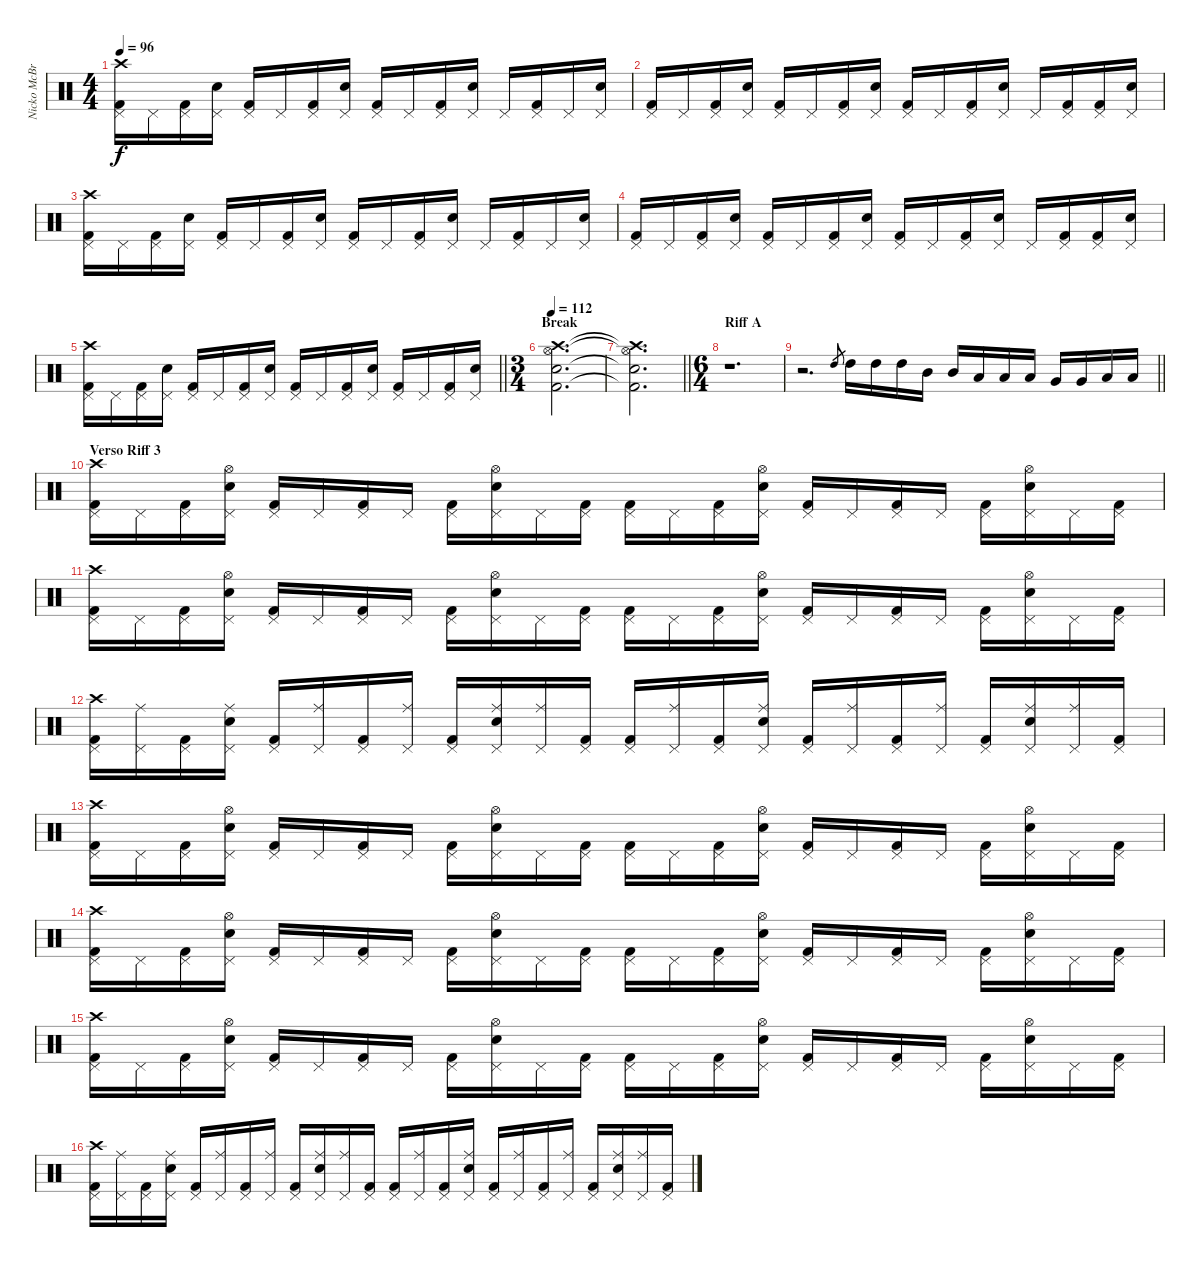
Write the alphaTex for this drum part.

\track ("Nicko McBrain" "Nicko McBr") {instrument percussion}
\staff {score}
\articulation defaults
\ts (4 4)
\tempo 96
\clef neutral
\ks c
("Kick (hit) 2" "Pedal Hi-Hat (hit)" "Crash high (hit)").16{dy f} "Pedal Hi-Hat (hit)".16 ("Kick (hit) 2" "Pedal Hi-Hat (hit)").16 ("Snare (hit) 2" "Pedal Hi-Hat (hit)").16 ("Kick (hit) 2" "Pedal Hi-Hat (hit)").16 "Pedal Hi-Hat (hit)".16 ("Kick (hit) 2" "Pedal Hi-Hat (hit)").16 ("Snare (hit) 2" "Pedal Hi-Hat (hit)").16 ("Kick (hit) 2" "Pedal Hi-Hat (hit)").16 "Pedal Hi-Hat (hit)".16 ("Kick (hit) 2" "Pedal Hi-Hat (hit)").16 ("Snare (hit) 2" "Pedal Hi-Hat (hit)").16 "Pedal Hi-Hat (hit)".16 ("Kick (hit) 2" "Pedal Hi-Hat (hit)").16 "Pedal Hi-Hat (hit)".16 ("Snare (hit) 2" "Pedal Hi-Hat (hit)").16 |
("Kick (hit) 2" "Pedal Hi-Hat (hit)").16 "Pedal Hi-Hat (hit)".16 ("Kick (hit) 2" "Pedal Hi-Hat (hit)").16 ("Snare (hit) 2" "Pedal Hi-Hat (hit)").16 ("Kick (hit) 2" "Pedal Hi-Hat (hit)").16 "Pedal Hi-Hat (hit)".16 ("Kick (hit) 2" "Pedal Hi-Hat (hit)").16 ("Snare (hit) 2" "Pedal Hi-Hat (hit)").16 ("Kick (hit) 2" "Pedal Hi-Hat (hit)").16 "Pedal Hi-Hat (hit)".16 ("Kick (hit) 2" "Pedal Hi-Hat (hit)").16 ("Snare (hit) 2" "Pedal Hi-Hat (hit)").16 "Pedal Hi-Hat (hit)".16 ("Kick (hit) 2" "Pedal Hi-Hat (hit)").16 ("Kick (hit) 2" "Pedal Hi-Hat (hit)").16 ("Snare (hit) 2" "Pedal Hi-Hat (hit)").16 |
("Kick (hit) 2" "Pedal Hi-Hat (hit)" "Crash high (hit)").16 "Pedal Hi-Hat (hit)".16 ("Kick (hit) 2" "Pedal Hi-Hat (hit)").16 ("Snare (hit) 2" "Pedal Hi-Hat (hit)").16 ("Kick (hit) 2" "Pedal Hi-Hat (hit)").16 "Pedal Hi-Hat (hit)".16 ("Kick (hit) 2" "Pedal Hi-Hat (hit)").16 ("Snare (hit) 2" "Pedal Hi-Hat (hit)").16 ("Kick (hit) 2" "Pedal Hi-Hat (hit)").16 "Pedal Hi-Hat (hit)".16 ("Kick (hit) 2" "Pedal Hi-Hat (hit)").16 ("Snare (hit) 2" "Pedal Hi-Hat (hit)").16 "Pedal Hi-Hat (hit)".16 ("Kick (hit) 2" "Pedal Hi-Hat (hit)").16 "Pedal Hi-Hat (hit)".16 ("Snare (hit) 2" "Pedal Hi-Hat (hit)").16 |
("Kick (hit) 2" "Pedal Hi-Hat (hit)").16 "Pedal Hi-Hat (hit)".16 ("Kick (hit) 2" "Pedal Hi-Hat (hit)").16 ("Snare (hit) 2" "Pedal Hi-Hat (hit)").16 ("Kick (hit) 2" "Pedal Hi-Hat (hit)").16 "Pedal Hi-Hat (hit)".16 ("Kick (hit) 2" "Pedal Hi-Hat (hit)").16 ("Snare (hit) 2" "Pedal Hi-Hat (hit)").16 ("Kick (hit) 2" "Pedal Hi-Hat (hit)").16 "Pedal Hi-Hat (hit)".16 ("Kick (hit) 2" "Pedal Hi-Hat (hit)").16 ("Snare (hit) 2" "Pedal Hi-Hat (hit)").16 "Pedal Hi-Hat (hit)".16 ("Kick (hit) 2" "Pedal Hi-Hat (hit)").16 ("Kick (hit) 2" "Pedal Hi-Hat (hit)").16 ("Snare (hit) 2" "Pedal Hi-Hat (hit)").16 |
\barLineRight lightlight
("Kick (hit) 2" "Pedal Hi-Hat (hit)" "Crash high (hit)").16 "Pedal Hi-Hat (hit)".16 ("Kick (hit) 2" "Pedal Hi-Hat (hit)").16 ("Snare (hit) 2" "Pedal Hi-Hat (hit)").16 ("Kick (hit) 2" "Pedal Hi-Hat (hit)").16 "Pedal Hi-Hat (hit)".16 ("Kick (hit) 2" "Pedal Hi-Hat (hit)").16 ("Snare (hit) 2" "Pedal Hi-Hat (hit)").16 ("Kick (hit) 2" "Pedal Hi-Hat (hit)").16 "Pedal Hi-Hat (hit)".16 ("Kick (hit) 2" "Pedal Hi-Hat (hit)").16 ("Snare (hit) 2" "Pedal Hi-Hat (hit)").16 ("Kick (hit) 2" "Pedal Hi-Hat (hit)").16 "Pedal Hi-Hat (hit)".16 ("Kick (hit) 2" "Pedal Hi-Hat (hit)").16 ("Snare (hit) 2" "Pedal Hi-Hat (hit)").16 |
\ts (3 4)
\section ("" "Break")
\tempo 112
("Snare (hit) 2" "Kick (hit) 2" "Hi-Hat (open)" "Crash high (hit)").2{d} |
\barLineRight lightlight
("Snare (hit) 2"{t} "Kick (hit) 2"{t} "Hi-Hat (open)"{t} "Crash high (hit)"{t}).2{d} |
\ts (6 4)
\section ("" "Riff A")
r.1{d} |
\barLineRight lightlight
r.2{d} "High Tom (hit)".8{gr} "High Tom (hit)".16 "High Tom (hit)".16 "High Tom (hit)".16 "Mid Tom (hit)".16 "Mid Tom (hit)".16 "Low Tom (hit)".16 "Low Tom (hit)".16 "Low Tom (hit)".16 "Very Low Tom (hit)".16 "Very Low Tom (hit)".16 "Low Floor Tom (hit)".16 "Low Floor Tom (hit)".16 |
\section ("" "Verso Riff 3")
("Kick (hit) 2" "Pedal Hi-Hat (hit)" "Crash high (hit)").16 "Pedal Hi-Hat (hit)".16 ("Kick (hit) 2" "Pedal Hi-Hat (hit)").16 ("Snare (hit) 2" "Pedal Hi-Hat (hit)" "Hi-Hat (open)").16 ("Kick (hit) 2" "Pedal Hi-Hat (hit)").16 "Pedal Hi-Hat (hit)".16 ("Kick (hit) 2" "Pedal Hi-Hat (hit)").16 "Pedal Hi-Hat (hit)".16 ("Kick (hit) 2" "Pedal Hi-Hat (hit)").16 ("Snare (hit) 2" "Pedal Hi-Hat (hit)" "Hi-Hat (open)").16 "Pedal Hi-Hat (hit)".16 ("Kick (hit) 2" "Pedal Hi-Hat (hit)").16 ("Kick (hit) 2" "Pedal Hi-Hat (hit)").16 "Pedal Hi-Hat (hit)".16 ("Kick (hit) 2" "Pedal Hi-Hat (hit)").16 ("Snare (hit) 2" "Pedal Hi-Hat (hit)" "Hi-Hat (open)").16 ("Kick (hit) 2" "Pedal Hi-Hat (hit)").16 "Pedal Hi-Hat (hit)".16 ("Kick (hit) 2" "Pedal Hi-Hat (hit)").16 "Pedal Hi-Hat (hit)".16 ("Kick (hit) 2" "Pedal Hi-Hat (hit)").16 ("Snare (hit) 2" "Pedal Hi-Hat (hit)" "Hi-Hat (open)").16 "Pedal Hi-Hat (hit)".16 ("Kick (hit) 2" "Pedal Hi-Hat (hit)").16 |
("Kick (hit) 2" "Pedal Hi-Hat (hit)" "Crash high (hit)").16 "Pedal Hi-Hat (hit)".16 ("Kick (hit) 2" "Pedal Hi-Hat (hit)").16 ("Snare (hit) 2" "Pedal Hi-Hat (hit)" "Hi-Hat (open)").16 ("Kick (hit) 2" "Pedal Hi-Hat (hit)").16 "Pedal Hi-Hat (hit)".16 ("Kick (hit) 2" "Pedal Hi-Hat (hit)").16 "Pedal Hi-Hat (hit)".16 ("Kick (hit) 2" "Pedal Hi-Hat (hit)").16 ("Snare (hit) 2" "Pedal Hi-Hat (hit)" "Hi-Hat (open)").16 "Pedal Hi-Hat (hit)".16 ("Kick (hit) 2" "Pedal Hi-Hat (hit)").16 ("Kick (hit) 2" "Pedal Hi-Hat (hit)").16 "Pedal Hi-Hat (hit)".16 ("Kick (hit) 2" "Pedal Hi-Hat (hit)").16 ("Snare (hit) 2" "Pedal Hi-Hat (hit)" "Hi-Hat (open)").16 ("Kick (hit) 2" "Pedal Hi-Hat (hit)").16 "Pedal Hi-Hat (hit)".16 ("Kick (hit) 2" "Pedal Hi-Hat (hit)").16 "Pedal Hi-Hat (hit)".16 ("Kick (hit) 2" "Pedal Hi-Hat (hit)").16 ("Snare (hit) 2" "Pedal Hi-Hat (hit)" "Hi-Hat (open)").16 "Pedal Hi-Hat (hit)".16 ("Kick (hit) 2" "Pedal Hi-Hat (hit)").16 |
("Kick (hit) 2" "Pedal Hi-Hat (hit)" "Crash high (hit)").16 ("Pedal Hi-Hat (hit)" "Ride (middle)").16 ("Kick (hit) 2" "Pedal Hi-Hat (hit)").16 ("Snare (hit) 2" "Pedal Hi-Hat (hit)" "Ride (middle)").16 ("Kick (hit) 2" "Pedal Hi-Hat (hit)").16 ("Pedal Hi-Hat (hit)" "Ride (middle)").16 ("Kick (hit) 2" "Pedal Hi-Hat (hit)").16 ("Pedal Hi-Hat (hit)" "Ride (middle)").16 ("Kick (hit) 2" "Pedal Hi-Hat (hit)").16 ("Snare (hit) 2" "Pedal Hi-Hat (hit)" "Ride (middle)").16 ("Pedal Hi-Hat (hit)" "Ride (middle)").16 ("Kick (hit) 2" "Pedal Hi-Hat (hit)").16 ("Kick (hit) 2" "Pedal Hi-Hat (hit)").16 ("Pedal Hi-Hat (hit)" "Ride (middle)").16 ("Kick (hit) 2" "Pedal Hi-Hat (hit)").16 ("Snare (hit) 2" "Pedal Hi-Hat (hit)" "Ride (middle)").16 ("Kick (hit) 2" "Pedal Hi-Hat (hit)").16 ("Pedal Hi-Hat (hit)" "Ride (middle)").16 ("Kick (hit) 2" "Pedal Hi-Hat (hit)").16 ("Pedal Hi-Hat (hit)" "Ride (middle)").16 ("Kick (hit) 2" "Pedal Hi-Hat (hit)").16 ("Snare (hit) 2" "Pedal Hi-Hat (hit)" "Ride (middle)").16 ("Pedal Hi-Hat (hit)" "Ride (middle)").16 ("Kick (hit) 2" "Pedal Hi-Hat (hit)").16 |
("Kick (hit) 2" "Pedal Hi-Hat (hit)" "Crash high (hit)").16 "Pedal Hi-Hat (hit)".16 ("Kick (hit) 2" "Pedal Hi-Hat (hit)").16 ("Snare (hit) 2" "Pedal Hi-Hat (hit)" "Hi-Hat (open)").16 ("Kick (hit) 2" "Pedal Hi-Hat (hit)").16 "Pedal Hi-Hat (hit)".16 ("Kick (hit) 2" "Pedal Hi-Hat (hit)").16 "Pedal Hi-Hat (hit)".16 ("Kick (hit) 2" "Pedal Hi-Hat (hit)").16 ("Snare (hit) 2" "Pedal Hi-Hat (hit)" "Hi-Hat (open)").16 "Pedal Hi-Hat (hit)".16 ("Kick (hit) 2" "Pedal Hi-Hat (hit)").16 ("Kick (hit) 2" "Pedal Hi-Hat (hit)").16 "Pedal Hi-Hat (hit)".16 ("Kick (hit) 2" "Pedal Hi-Hat (hit)").16 ("Snare (hit) 2" "Pedal Hi-Hat (hit)" "Hi-Hat (open)").16 ("Kick (hit) 2" "Pedal Hi-Hat (hit)").16 "Pedal Hi-Hat (hit)".16 ("Kick (hit) 2" "Pedal Hi-Hat (hit)").16 "Pedal Hi-Hat (hit)".16 ("Kick (hit) 2" "Pedal Hi-Hat (hit)").16 ("Snare (hit) 2" "Pedal Hi-Hat (hit)" "Hi-Hat (open)").16 "Pedal Hi-Hat (hit)".16 ("Kick (hit) 2" "Pedal Hi-Hat (hit)").16 |
("Kick (hit) 2" "Pedal Hi-Hat (hit)" "Crash high (hit)").16 "Pedal Hi-Hat (hit)".16 ("Kick (hit) 2" "Pedal Hi-Hat (hit)").16 ("Snare (hit) 2" "Pedal Hi-Hat (hit)" "Hi-Hat (open)").16 ("Kick (hit) 2" "Pedal Hi-Hat (hit)").16 "Pedal Hi-Hat (hit)".16 ("Kick (hit) 2" "Pedal Hi-Hat (hit)").16 "Pedal Hi-Hat (hit)".16 ("Kick (hit) 2" "Pedal Hi-Hat (hit)").16 ("Snare (hit) 2" "Pedal Hi-Hat (hit)" "Hi-Hat (open)").16 "Pedal Hi-Hat (hit)".16 ("Kick (hit) 2" "Pedal Hi-Hat (hit)").16 ("Kick (hit) 2" "Pedal Hi-Hat (hit)").16 "Pedal Hi-Hat (hit)".16 ("Kick (hit) 2" "Pedal Hi-Hat (hit)").16 ("Snare (hit) 2" "Pedal Hi-Hat (hit)" "Hi-Hat (open)").16 ("Kick (hit) 2" "Pedal Hi-Hat (hit)").16 "Pedal Hi-Hat (hit)".16 ("Kick (hit) 2" "Pedal Hi-Hat (hit)").16 "Pedal Hi-Hat (hit)".16 ("Kick (hit) 2" "Pedal Hi-Hat (hit)").16 ("Snare (hit) 2" "Pedal Hi-Hat (hit)" "Hi-Hat (open)").16 "Pedal Hi-Hat (hit)".16 ("Kick (hit) 2" "Pedal Hi-Hat (hit)").16 |
("Kick (hit) 2" "Pedal Hi-Hat (hit)" "Crash high (hit)").16 "Pedal Hi-Hat (hit)".16 ("Kick (hit) 2" "Pedal Hi-Hat (hit)").16 ("Snare (hit) 2" "Pedal Hi-Hat (hit)" "Hi-Hat (open)").16 ("Kick (hit) 2" "Pedal Hi-Hat (hit)").16 "Pedal Hi-Hat (hit)".16 ("Kick (hit) 2" "Pedal Hi-Hat (hit)").16 "Pedal Hi-Hat (hit)".16 ("Kick (hit) 2" "Pedal Hi-Hat (hit)").16 ("Snare (hit) 2" "Pedal Hi-Hat (hit)" "Hi-Hat (open)").16 "Pedal Hi-Hat (hit)".16 ("Kick (hit) 2" "Pedal Hi-Hat (hit)").16 ("Kick (hit) 2" "Pedal Hi-Hat (hit)").16 "Pedal Hi-Hat (hit)".16 ("Kick (hit) 2" "Pedal Hi-Hat (hit)").16 ("Snare (hit) 2" "Pedal Hi-Hat (hit)" "Hi-Hat (open)").16 ("Kick (hit) 2" "Pedal Hi-Hat (hit)").16 "Pedal Hi-Hat (hit)".16 ("Kick (hit) 2" "Pedal Hi-Hat (hit)").16 "Pedal Hi-Hat (hit)".16 ("Kick (hit) 2" "Pedal Hi-Hat (hit)").16 ("Snare (hit) 2" "Pedal Hi-Hat (hit)" "Hi-Hat (open)").16 "Pedal Hi-Hat (hit)".16 ("Kick (hit) 2" "Pedal Hi-Hat (hit)").16 |
("Kick (hit) 2" "Pedal Hi-Hat (hit)" "Crash high (hit)").16 ("Pedal Hi-Hat (hit)" "Ride (middle)").16 ("Kick (hit) 2" "Pedal Hi-Hat (hit)").16 ("Snare (hit) 2" "Pedal Hi-Hat (hit)" "Ride (middle)").16 ("Kick (hit) 2" "Pedal Hi-Hat (hit)").16 ("Pedal Hi-Hat (hit)" "Ride (middle)").16 ("Kick (hit) 2" "Pedal Hi-Hat (hit)").16 ("Pedal Hi-Hat (hit)" "Ride (middle)").16 ("Kick (hit) 2" "Pedal Hi-Hat (hit)").16 ("Snare (hit) 2" "Pedal Hi-Hat (hit)" "Ride (middle)").16 ("Pedal Hi-Hat (hit)" "Ride (middle)").16 ("Kick (hit) 2" "Pedal Hi-Hat (hit)").16 ("Kick (hit) 2" "Pedal Hi-Hat (hit)").16 ("Pedal Hi-Hat (hit)" "Ride (middle)").16 ("Kick (hit) 2" "Pedal Hi-Hat (hit)").16 ("Snare (hit) 2" "Pedal Hi-Hat (hit)" "Ride (middle)").16 ("Kick (hit) 2" "Pedal Hi-Hat (hit)").16 ("Pedal Hi-Hat (hit)" "Ride (middle)").16 ("Kick (hit) 2" "Pedal Hi-Hat (hit)").16 ("Pedal Hi-Hat (hit)" "Ride (middle)").16 ("Kick (hit) 2" "Pedal Hi-Hat (hit)").16 ("Snare (hit) 2" "Pedal Hi-Hat (hit)" "Ride (middle)").16 ("Pedal Hi-Hat (hit)" "Ride (middle)").16 ("Kick (hit) 2" "Pedal Hi-Hat (hit)").16
